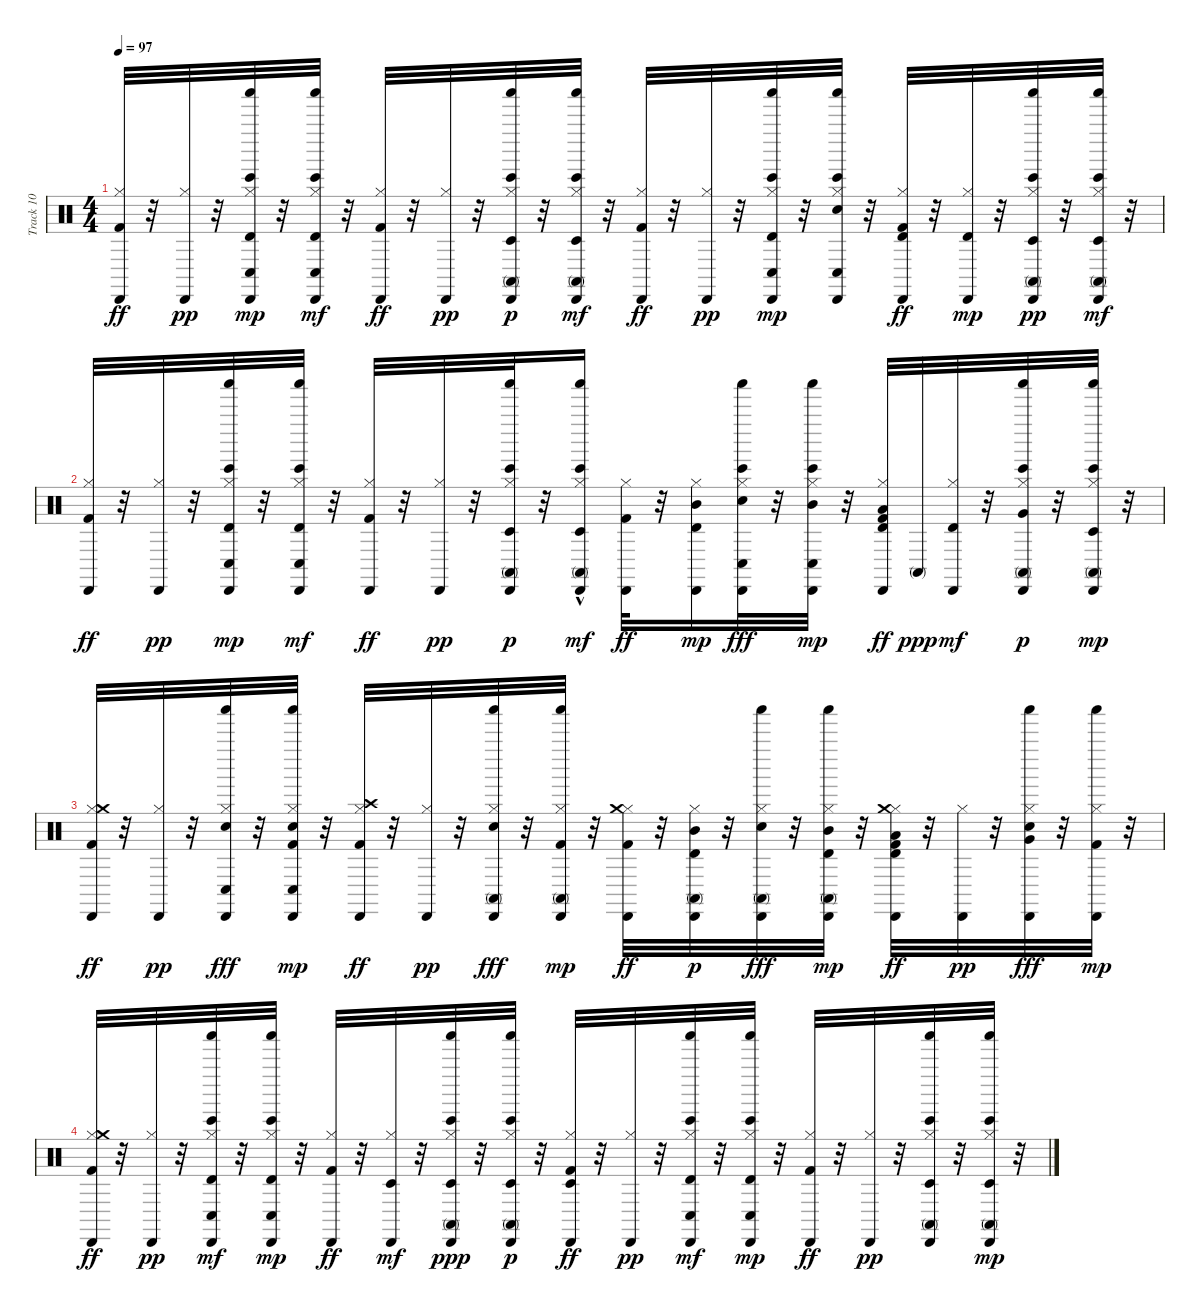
\track ("Track 10" "Track 10") {instrument percussion}
\staff {score}
\articulation defaults
\ts (4 4)
\tempo 97
\clef neutral
\ks c
("Hi-Hat (closed)" "Cabasa (hit)" "Kick (hit) 2").32{dy ff} r.32 ("Hi-Hat (closed)" "Cabasa (hit)").32{dy pp} r.32 ("Hi-Hat (closed)" "Shaker (hit)" "Conga low (hit)" "Bongo High (hit)" "Cabasa (hit)" "Timbale high (hit)").32{dy mp} r.32 ("Hi-Hat (closed)" "Shaker (hit)" "Conga low (hit)" "Bongo High (hit)" "Cabasa (hit)" "Timbale high (hit)").32{dy mf} r.32 ("Hi-Hat (closed)" "Cabasa (hit)" "Kick (hit) 2").32{dy ff} r.32 ("Hi-Hat (closed)" "Cabasa (hit)").32{dy pp} r.32 ("Hi-Hat (closed)" "Shaker (hit)" "Conga high (mute)" "Bongo High (hit)" "Cabasa (hit)" "Timbale low (hit)").32{dy p} r.32 ("Hi-Hat (closed)" "Shaker (hit)" "Conga high (mute)" "Bongo High (hit)" "Cabasa (hit)" "Timbale low (hit)").32{dy mf} r.32 ("Hi-Hat (closed)" "Cabasa (hit)" "Kick (hit) 2").32{dy ff} r.32 ("Hi-Hat (closed)" "Cabasa (hit)").32{dy pp} r.32 ("Hi-Hat (closed)" "Shaker (hit)" "Conga low (hit)" "Bongo High (hit)" "Cabasa (hit)" "Timbale high (hit)").32{dy mp} r.32 ("Hi-Hat (closed)" "Shaker (hit)" "Conga low (hit)" "Bongo High (hit)" "Cabasa (hit)" "Snare (hit) 2").32 r.32 ("Hi-Hat (closed)" "Cabasa (hit)" "Timbale high (hit)" "Kick (hit) 2").32{dy ff} r.32 ("Hi-Hat (closed)" "Cabasa (hit)" "Timbale high (hit)").32{dy mp} r.32 ("Hi-Hat (closed)" "Shaker (hit)" "Conga high (mute)" "Bongo High (hit)" "Cabasa (hit)" "Timbale low (hit)").32{dy pp} r.32 ("Hi-Hat (closed)" "Shaker (hit)" "Conga high (mute)" "Bongo High (hit)" "Cabasa (hit)" "Timbale low (hit)").32{dy mf} r.32 |
("Hi-Hat (closed)" "Cabasa (hit)" "Kick (hit) 2").32{dy ff} r.32 ("Hi-Hat (closed)" "Cabasa (hit)").32{dy pp} r.32 ("Hi-Hat (closed)" "Shaker (hit)" "Conga low (hit)" "Bongo High (hit)" "Cabasa (hit)" "Timbale high (hit)").32{dy mp} r.32 ("Hi-Hat (closed)" "Shaker (hit)" "Conga low (hit)" "Bongo High (hit)" "Cabasa (hit)" "Timbale high (hit)").32{dy mf} r.32 ("Hi-Hat (closed)" "Cabasa (hit)" "Kick (hit) 2").32{dy ff} r.32 ("Hi-Hat (closed)" "Cabasa (hit)").32{dy pp} r.32 ("Hi-Hat (closed)" "Shaker (hit)" "Conga high (mute)" "Bongo High (hit)" "Cabasa (hit)" "Timbale low (hit)").32{dy p} r.32 ("Hi-Hat (closed)" "Shaker (hit)" "Conga high (mute)" "Bongo High (hit)" "Cabasa (hit)" "Timbale low (hit)"{hac}).16{dy mf} ("Hi-Hat (closed)" "Cabasa (hit)" "Kick (hit) 2").32{dy ff} r.32 ("Hi-Hat (closed)" "Cabasa (hit)" "Mid Tom (hit)" "Timbale high (hit)").16{dy mp} ("Hi-Hat (closed)" "Shaker (hit)" "Conga low (hit)" "Bongo High (hit)" "Cabasa (hit)" "Snare (hit) 2").32{dy fff} r.32 ("Hi-Hat (closed)" "Shaker (hit)" "Conga low (hit)" "Bongo High (hit)" "Cabasa (hit)" "Mid Tom (hit)").32{dy mp} r.32 ("Hi-Hat (closed)" "Cabasa (hit)" "Low Tom (hit)" "Timbale high (hit)" "Kick (hit) 2").32{dy ff} "Conga high (mute)".32{dy ppp} ("Hi-Hat (closed)" "Cabasa (hit)" "Timbale high (hit)").32{dy mf} r.32 ("Hi-Hat (closed)" "Shaker (hit)" "Conga high (mute)" "Bongo High (hit)" "Cabasa (hit)" "Very Low Tom (hit)").32{dy p} r.32 ("Hi-Hat (closed)" "Shaker (hit)" "Conga high (mute)" "Bongo High (hit)" "Cabasa (hit)" "Timbale low (hit)").32{dy mp} r.32 |
("Hi-Hat (closed)" "Cabasa (hit)" "Crash medium (hit)" "Kick (hit) 2").32{dy ff} r.32 ("Hi-Hat (closed)" "Cabasa (hit)").32{dy pp} r.32 ("Hi-Hat (closed)" "Shaker (hit)" "Conga low (hit)" "Cabasa (hit)" "Snare (hit) 2").32{dy fff} r.32 ("Hi-Hat (closed)" "Shaker (hit)" "Conga low (hit)" "Cabasa (hit)" "Kick (hit) 2" "Snare (hit) 2").32{dy mp} r.32 ("Hi-Hat (closed)" "Cabasa (hit)" "Crash high (hit)" "Kick (hit) 2").32{dy ff} r.32 ("Hi-Hat (closed)" "Cabasa (hit)").32{dy pp} r.32 ("Hi-Hat (closed)" "Shaker (hit)" "Conga high (mute)" "Cabasa (hit)" "Snare (hit) 2").32{dy fff} r.32 ("Hi-Hat (closed)" "Shaker (hit)" "Conga high (mute)" "Cabasa (hit)" "Kick (hit) 2").32{dy mp} r.32 ("Hi-Hat (closed)" "Cabasa (hit)" "Crash medium (hit)" "Kick (hit) 2").32{dy ff} r.32 ("Hi-Hat (closed)" "Conga high (mute)" "Cabasa (hit)" "Mid Tom (hit)" "Timbale high (hit)").32{dy p} r.32 ("Hi-Hat (closed)" "Shaker (hit)" "Conga high (mute)" "Cabasa (hit)" "Snare (hit) 2").32{dy fff} r.32 ("Hi-Hat (closed)" "Shaker (hit)" "Conga high (mute)" "Cabasa (hit)" "Mid Tom (hit)" "Timbale high (hit)").32{dy mp} r.32 ("Hi-Hat (closed)" "Cabasa (hit)" "Crash medium (hit)" "Low Tom (hit)" "Timbale high (hit)" "Kick (hit) 2").32{dy ff} r.32 ("Hi-Hat (closed)" "Cabasa (hit)").32{dy pp} r.32 ("Hi-Hat (closed)" "Shaker (hit)" "Cabasa (hit)" "Very Low Tom (hit)" "Snare (hit) 2").32{dy fff} r.32 ("Hi-Hat (closed)" "Shaker (hit)" "Cabasa (hit)" "Kick (hit) 2").32{dy mp} r.32 |
("Hi-Hat (closed)" "Cabasa (hit)" "Crash medium (hit)" "Kick (hit) 2").32{dy ff} r.32 ("Hi-Hat (closed)" "Cabasa (hit)").32{dy pp} r.32 ("Hi-Hat (closed)" "Shaker (hit)" "Conga low (hit)" "Bongo High (hit)" "Cabasa (hit)" "Timbale high (hit)").32{dy mf} r.32 ("Hi-Hat (closed)" "Shaker (hit)" "Conga low (hit)" "Bongo High (hit)" "Cabasa (hit)" "Timbale high (hit)").32{dy mp} r.32 ("Hi-Hat (closed)" "Cabasa (hit)" "Kick (hit) 2").32{dy ff} r.32 ("Hi-Hat (closed)" "Cabasa (hit)" "Timbale low (hit)").32{dy mf} r.32 ("Hi-Hat (closed)" "Shaker (hit)" "Conga high (mute)" "Bongo High (hit)" "Cabasa (hit)" "Timbale low (hit)").32{dy ppp} r.32 ("Hi-Hat (closed)" "Shaker (hit)" "Conga high (mute)" "Bongo High (hit)" "Cabasa (hit)" "Timbale low (hit)").32{dy p} r.32 ("Hi-Hat (closed)" "Cabasa (hit)" "Timbale low (hit)" "Kick (hit) 2").32{dy ff} r.32 ("Hi-Hat (closed)" "Cabasa (hit)").32{dy pp} r.32 ("Hi-Hat (closed)" "Shaker (hit)" "Conga low (hit)" "Bongo High (hit)" "Cabasa (hit)" "Timbale high (hit)").32{dy mf} r.32 ("Hi-Hat (closed)" "Shaker (hit)" "Conga low (hit)" "Bongo High (hit)" "Cabasa (hit)" "Timbale high (hit)").32{dy mp} r.32 ("Hi-Hat (closed)" "Cabasa (hit)" "Kick (hit) 2").32{dy ff} r.32 ("Hi-Hat (closed)" "Cabasa (hit)").32{dy pp} r.32 ("Hi-Hat (closed)" "Shaker (hit)" "Conga high (mute)" "Bongo High (hit)" "Cabasa (hit)" "Timbale low (hit)").32 r.32 ("Hi-Hat (closed)" "Shaker (hit)" "Conga high (mute)" "Bongo High (hit)" "Cabasa (hit)" "Timbale low (hit)").32{dy mp} r.32
